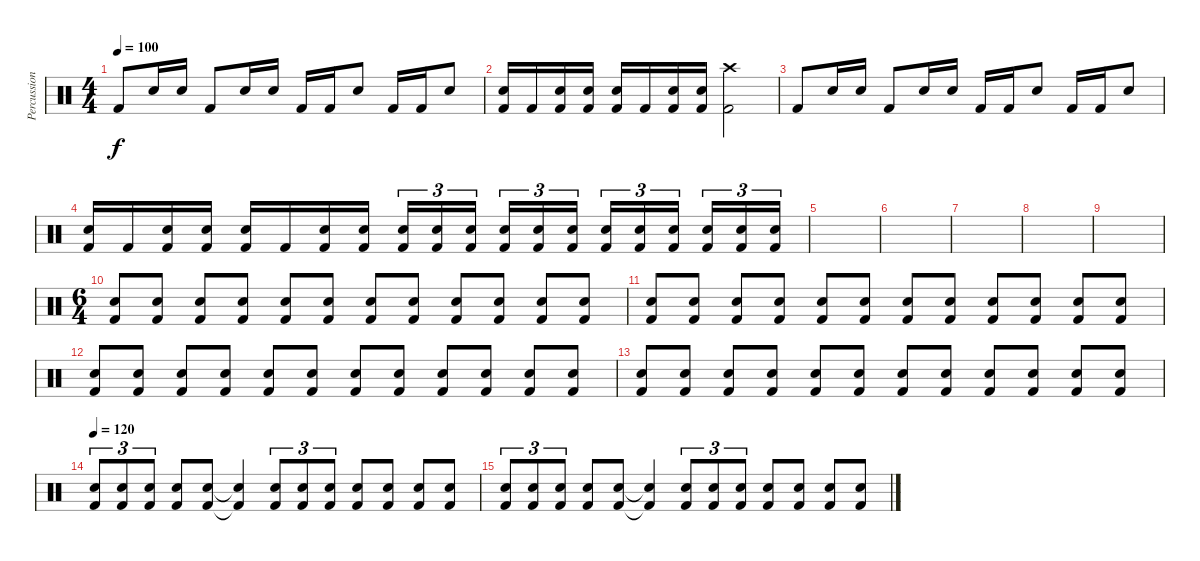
\track ("Percussion" "Percussion") {instrument percussion}
\staff {score}
\articulation defaults
\ts (4 4)
\tempo 100
\clef neutral
\ks c "Kick (hit) 2".8{dy f} "Snare (hit) 2".16 "Snare (hit) 2".16 "Kick (hit) 2".8 "Snare (hit) 2".16 "Snare (hit) 2".16 "Kick (hit) 2".16 "Kick (hit) 2".16 "Snare (hit) 2".8 "Kick (hit) 2".16 "Kick (hit) 2".16 "Snare (hit) 2".8
|
("Snare (hit) 2" "Kick (hit) 2").16 "Kick (hit) 2".16 ("Snare (hit) 2" "Kick (hit) 2").16 ("Snare (hit) 2" "Kick (hit) 2").16 ("Snare (hit) 2" "Kick (hit) 2").16 "Kick (hit) 2".16 ("Snare (hit) 2" "Kick (hit) 2").16 ("Snare (hit) 2" "Kick (hit) 2").16 ("Crash high (hit)" "Kick (hit) 2").2 |
"Kick (hit) 2".8 "Snare (hit) 2".16 "Snare (hit) 2".16 "Kick (hit) 2".8 "Snare (hit) 2".16 "Snare (hit) 2".16 "Kick (hit) 2".16 "Kick (hit) 2".16 "Snare (hit) 2".8 "Kick (hit) 2".16 "Kick (hit) 2".16 "Snare (hit) 2".8 |
("Snare (hit) 2" "Kick (hit) 2").16 "Kick (hit) 2".16 ("Snare (hit) 2" "Kick (hit) 2").16 ("Snare (hit) 2" "Kick (hit) 2").16 ("Snare (hit) 2" "Kick (hit) 2").16 "Kick (hit) 2".16 ("Snare (hit) 2" "Kick (hit) 2").16 ("Snare (hit) 2" "Kick (hit) 2").16 ("Snare (hit) 2" "Kick (hit) 2").16{tu (3 2)} ("Snare (hit) 2" "Kick (hit) 2").16{tu (3 2)} ("Snare (hit) 2" "Kick (hit) 2").16{tu (3 2)} ("Snare (hit) 2" "Kick (hit) 2").16{tu (3 2)} ("Snare (hit) 2" "Kick (hit) 2").16{tu (3 2)} ("Snare (hit) 2" "Kick (hit) 2").16{tu (3 2)} ("Snare (hit) 2" "Kick (hit) 2").16{tu (3 2)} ("Snare (hit) 2" "Kick (hit) 2").16{tu (3 2)} ("Snare (hit) 2" "Kick (hit) 2").16{tu (3 2)} ("Snare (hit) 2" "Kick (hit) 2").16{tu (3 2)} ("Snare (hit) 2" "Kick (hit) 2").16{tu (3 2)} ("Snare (hit) 2" "Kick (hit) 2").16{tu (3 2)} |
|
|
|
|
|
\ts (6 4)
("Snare (hit) 2" "Kick (hit) 2").8 ("Snare (hit) 2" "Kick (hit) 2").8 ("Snare (hit) 2" "Kick (hit) 2").8 ("Snare (hit) 2" "Kick (hit) 2").8 ("Snare (hit) 2" "Kick (hit) 2").8 ("Snare (hit) 2" "Kick (hit) 2").8 ("Snare (hit) 2" "Kick (hit) 2").8 ("Snare (hit) 2" "Kick (hit) 2").8 ("Snare (hit) 2" "Kick (hit) 2").8 ("Snare (hit) 2" "Kick (hit) 2").8 ("Snare (hit) 2" "Kick (hit) 2").8 ("Snare (hit) 2" "Kick (hit) 2").8 |
("Snare (hit) 2" "Kick (hit) 2").8 ("Snare (hit) 2" "Kick (hit) 2").8 ("Snare (hit) 2" "Kick (hit) 2").8 ("Snare (hit) 2" "Kick (hit) 2").8 ("Snare (hit) 2" "Kick (hit) 2").8 ("Snare (hit) 2" "Kick (hit) 2").8 ("Snare (hit) 2" "Kick (hit) 2").8 ("Snare (hit) 2" "Kick (hit) 2").8 ("Snare (hit) 2" "Kick (hit) 2").8 ("Snare (hit) 2" "Kick (hit) 2").8 ("Snare (hit) 2" "Kick (hit) 2").8 ("Snare (hit) 2" "Kick (hit) 2").8 |
("Snare (hit) 2" "Kick (hit) 2").8 ("Snare (hit) 2" "Kick (hit) 2").8 ("Snare (hit) 2" "Kick (hit) 2").8 ("Snare (hit) 2" "Kick (hit) 2").8 ("Snare (hit) 2" "Kick (hit) 2").8 ("Snare (hit) 2" "Kick (hit) 2").8 ("Snare (hit) 2" "Kick (hit) 2").8 ("Snare (hit) 2" "Kick (hit) 2").8 ("Snare (hit) 2" "Kick (hit) 2").8 ("Snare (hit) 2" "Kick (hit) 2").8 ("Snare (hit) 2" "Kick (hit) 2").8 ("Snare (hit) 2" "Kick (hit) 2").8 |
("Snare (hit) 2" "Kick (hit) 2").8 ("Snare (hit) 2" "Kick (hit) 2").8 ("Snare (hit) 2" "Kick (hit) 2").8 ("Snare (hit) 2" "Kick (hit) 2").8 ("Snare (hit) 2" "Kick (hit) 2").8 ("Snare (hit) 2" "Kick (hit) 2").8 ("Snare (hit) 2" "Kick (hit) 2").8 ("Snare (hit) 2" "Kick (hit) 2").8 ("Snare (hit) 2" "Kick (hit) 2").8 ("Snare (hit) 2" "Kick (hit) 2").8 ("Snare (hit) 2" "Kick (hit) 2").8 ("Snare (hit) 2" "Kick (hit) 2").8 |
\tempo 120
("Snare (hit) 2" "Kick (hit) 2").8{tu (3 2)} ("Snare (hit) 2" "Kick (hit) 2").8{tu (3 2)} ("Snare (hit) 2" "Kick (hit) 2").8{tu (3 2)} ("Snare (hit) 2" "Kick (hit) 2").8 ("Snare (hit) 2" "Kick (hit) 2").8 ("Snare (hit) 2"{t} "Kick (hit) 2"{t}).4 ("Snare (hit) 2" "Kick (hit) 2").8{tu (3 2)} ("Snare (hit) 2" "Kick (hit) 2").8{tu (3 2)} ("Snare (hit) 2" "Kick (hit) 2").8{tu (3 2)} ("Snare (hit) 2" "Kick (hit) 2").8 ("Snare (hit) 2" "Kick (hit) 2").8 ("Snare (hit) 2" "Kick (hit) 2").8 ("Kick (hit) 2" "Snare (hit) 2").8 |
("Snare (hit) 2" "Kick (hit) 2").8{tu (3 2)} ("Snare (hit) 2" "Kick (hit) 2").8{tu (3 2)} ("Snare (hit) 2" "Kick (hit) 2").8{tu (3 2)} ("Snare (hit) 2" "Kick (hit) 2").8 ("Snare (hit) 2" "Kick (hit) 2").8 ("Snare (hit) 2"{t} "Kick (hit) 2"{t}).4 ("Snare (hit) 2" "Kick (hit) 2").8{tu (3 2)} ("Snare (hit) 2" "Kick (hit) 2").8{tu (3 2)} ("Snare (hit) 2" "Kick (hit) 2").8{tu (3 2)} ("Snare (hit) 2" "Kick (hit) 2").8 ("Snare (hit) 2" "Kick (hit) 2").8 ("Snare (hit) 2" "Kick (hit) 2").8 ("Kick (hit) 2" "Snare (hit) 2").8
